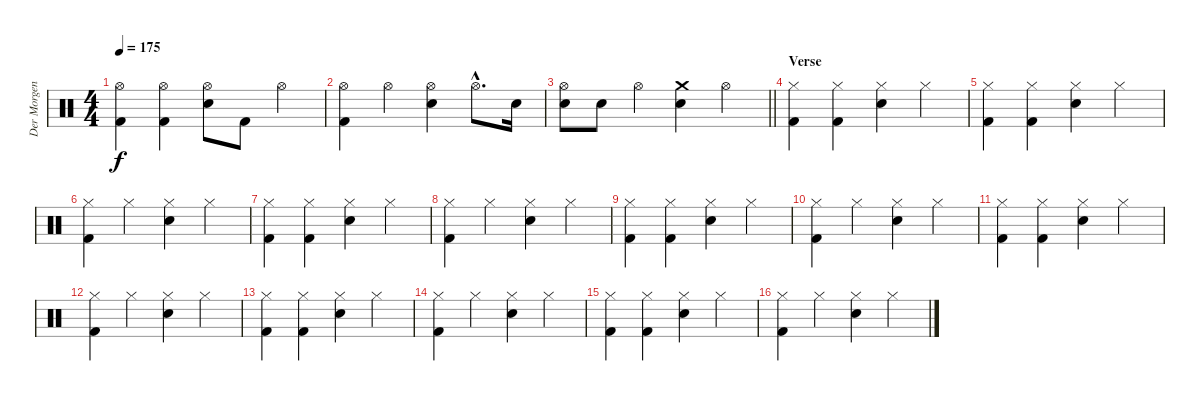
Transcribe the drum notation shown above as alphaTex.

\track ("Der Morgenstern" "Der Morgen") {instrument percussion}
\staff {score}
\articulation defaults
\ts (4 4)
\tempo 175
\clef neutral
\ks c
("Hi-Hat (open)" "Kick (hit) 2").4{dy f} ("Hi-Hat (open)" "Kick (hit) 2").4 ("Hi-Hat (open)" "Electric Snare (hit)").8 "Kick (hit) 2".8 "Hi-Hat (open)".4 |
("Hi-Hat (open)" "Kick (hit) 2").4 "Hi-Hat (open)".4 ("Hi-Hat (open)" "Electric Snare (hit)").4 "Hi-Hat (open)"{hac}.8{d} "Electric Snare (hit)".16 |
\barLineRight lightlight
("Hi-Hat (open)" "Electric Snare (hit)").8 "Electric Snare (hit)".8 "Hi-Hat (open)".4 ("Crash medium (hit)" "Electric Snare (hit)").4 "Hi-Hat (open)".4 |
\section ("" "Verse")
("Hi-Hat (closed)" "Kick (hit) 2").4 ("Hi-Hat (closed)" "Kick (hit) 2").4 ("Hi-Hat (closed)" "Electric Snare (hit)").4 "Hi-Hat (closed)".4 |
("Hi-Hat (closed)" "Kick (hit) 2").4 ("Hi-Hat (closed)" "Kick (hit) 2").4 ("Hi-Hat (closed)" "Electric Snare (hit)").4 "Hi-Hat (closed)".4 |
("Hi-Hat (closed)" "Kick (hit) 2").4 "Hi-Hat (closed)".4 ("Hi-Hat (closed)" "Electric Snare (hit)").4 "Hi-Hat (closed)".4 |
("Hi-Hat (closed)" "Kick (hit) 2").4 ("Hi-Hat (closed)" "Kick (hit) 2").4 ("Hi-Hat (closed)" "Electric Snare (hit)").4 "Hi-Hat (closed)".4 |
("Hi-Hat (closed)" "Kick (hit) 2").4 "Hi-Hat (closed)".4 ("Hi-Hat (closed)" "Electric Snare (hit)").4 "Hi-Hat (closed)".4 |
("Hi-Hat (closed)" "Kick (hit) 2").4 ("Hi-Hat (closed)" "Kick (hit) 2").4 ("Hi-Hat (closed)" "Electric Snare (hit)").4 "Hi-Hat (closed)".4 |
("Hi-Hat (closed)" "Kick (hit) 2").4 "Hi-Hat (closed)".4 ("Hi-Hat (closed)" "Electric Snare (hit)").4 "Hi-Hat (closed)".4 |
("Hi-Hat (closed)" "Kick (hit) 2").4 ("Hi-Hat (closed)" "Kick (hit) 2").4 ("Hi-Hat (closed)" "Electric Snare (hit)").4 "Hi-Hat (closed)".4 |
("Hi-Hat (closed)" "Kick (hit) 2").4 "Hi-Hat (closed)".4 ("Hi-Hat (closed)" "Electric Snare (hit)").4 "Hi-Hat (closed)".4 |
("Hi-Hat (closed)" "Kick (hit) 2").4 ("Hi-Hat (closed)" "Kick (hit) 2").4 ("Hi-Hat (closed)" "Electric Snare (hit)").4 "Hi-Hat (closed)".4 |
("Hi-Hat (closed)" "Kick (hit) 2").4 "Hi-Hat (closed)".4 ("Hi-Hat (closed)" "Electric Snare (hit)").4 "Hi-Hat (closed)".4 |
("Hi-Hat (closed)" "Kick (hit) 2").4 ("Hi-Hat (closed)" "Kick (hit) 2").4 ("Hi-Hat (closed)" "Electric Snare (hit)").4 "Hi-Hat (closed)".4 |
("Hi-Hat (closed)" "Kick (hit) 2").4 "Hi-Hat (closed)".4 ("Hi-Hat (closed)" "Electric Snare (hit)").4 "Hi-Hat (closed)".4
